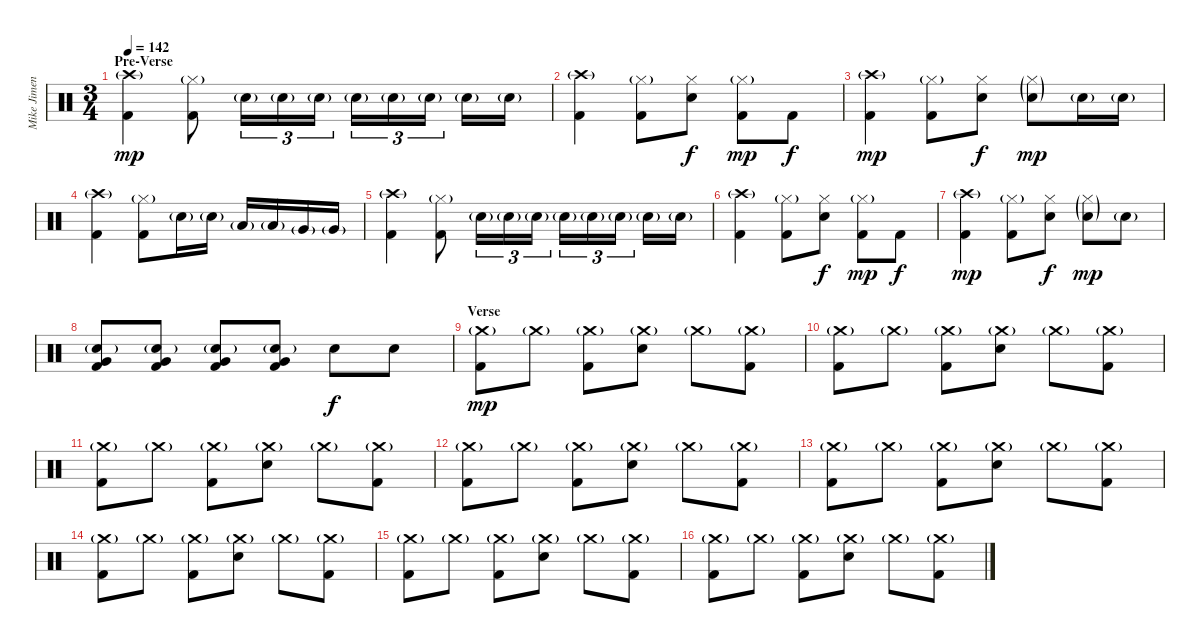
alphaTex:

\track ("Mike Jimenez" "Mike Jimen") {instrument percussion}
\staff {score}
\articulation defaults
\ts (3 4)
\section ("" "Pre-Verse")
\tempo 142
\clef neutral
\ks c
("Crash high (hit)"{g} "Kick (hit) 2").4{dy mp} ("Hi-Hat (closed)"{g} "Kick (hit) 2").8 "Electric Snare (hit)"{g}.16{tu (3 2)} "Electric Snare (hit)"{g}.16{tu (3 2)} "Electric Snare (hit)"{g}.16{tu (3 2)} "Electric Snare (hit)"{g}.16{tu (3 2)} "Electric Snare (hit)"{g}.16{tu (3 2)} "Electric Snare (hit)"{g}.16{tu (3 2)} "Electric Snare (hit)"{g}.16 "Electric Snare (hit)"{g}.16 |
("Crash high (hit)"{g} "Kick (hit) 2").4 ("Hi-Hat (closed)"{g} "Kick (hit) 2").8 ("Hi-Hat (closed)" "Electric Snare (hit)").8{dy f} ("Hi-Hat (closed)"{g} "Kick (hit) 2").8{dy mp} "Kick (hit) 2".8{dy f} |
("Crash high (hit)"{g} "Kick (hit) 2").4{dy mp} ("Hi-Hat (closed)"{g} "Kick (hit) 2").8 ("Hi-Hat (closed)" "Electric Snare (hit)").8{dy f} ("Hi-Hat (closed)"{g} "Electric Snare (hit)"{g}).8{dy mp} "Electric Snare (hit)"{g}.16 "Electric Snare (hit)"{g}.16 |
("Crash high (hit)"{g} "Kick (hit) 2").4 ("Hi-Hat (closed)"{g} "Kick (hit) 2").8 "Electric Snare (hit)"{g}.16 "Electric Snare (hit)"{g}.16 "Low Tom (hit)"{g}.16 "Low Tom (hit)"{g}.16 "Very Low Tom (hit)"{g}.16 "Very Low Tom (hit)"{g}.16 |
("Crash high (hit)"{g} "Kick (hit) 2").4 ("Hi-Hat (closed)"{g} "Kick (hit) 2").8 "Electric Snare (hit)"{g}.16{tu (3 2)} "Electric Snare (hit)"{g}.16{tu (3 2)} "Electric Snare (hit)"{g}.16{tu (3 2)} "Electric Snare (hit)"{g}.16{tu (3 2)} "Electric Snare (hit)"{g}.16{tu (3 2)} "Electric Snare (hit)"{g}.16{tu (3 2)} "Electric Snare (hit)"{g}.16 "Electric Snare (hit)"{g}.16 |
("Crash high (hit)"{g} "Kick (hit) 2").4 ("Hi-Hat (closed)"{g} "Kick (hit) 2").8 ("Hi-Hat (closed)" "Electric Snare (hit)").8{dy f} ("Hi-Hat (closed)"{g} "Kick (hit) 2").8{dy mp} "Kick (hit) 2".8{dy f} |
("Crash high (hit)"{g} "Kick (hit) 2").4{dy mp} ("Hi-Hat (closed)"{g} "Kick (hit) 2").8 ("Hi-Hat (closed)" "Electric Snare (hit)").8{dy f} ("Hi-Hat (closed)"{g} "Electric Snare (hit)"{g}).8{dy mp} "Electric Snare (hit)"{g}.8 |
("Electric Snare (hit)"{g} "Very Low Tom (hit)" "Kick (hit) 2").8 ("Electric Snare (hit)"{g} "Very Low Tom (hit)" "Kick (hit) 2").8 ("Electric Snare (hit)"{g} "Very Low Tom (hit)" "Kick (hit) 2").8 ("Electric Snare (hit)"{g} "Very Low Tom (hit)" "Kick (hit) 2").8 "Electric Snare (hit)".8{dy f} "Electric Snare (hit)".8 |
\section ("" "Verse")
("Crash medium (hit)"{g} "Kick (hit) 2").8{dy mp} "Crash medium (hit)"{g}.8 ("Crash medium (hit)"{g} "Kick (hit) 2").8 ("Crash medium (hit)"{g} "Electric Snare (hit)").8 "Crash medium (hit)"{g}.8 ("Crash medium (hit)"{g} "Kick (hit) 2").8 |
("Crash medium (hit)"{g} "Kick (hit) 2").8 "Crash medium (hit)"{g}.8 ("Crash medium (hit)"{g} "Kick (hit) 2").8 ("Crash medium (hit)"{g} "Electric Snare (hit)").8 "Crash medium (hit)"{g}.8 ("Crash medium (hit)"{g} "Kick (hit) 2").8 |
("Crash medium (hit)"{g} "Kick (hit) 2").8 "Crash medium (hit)"{g}.8 ("Crash medium (hit)"{g} "Kick (hit) 2").8 ("Crash medium (hit)"{g} "Electric Snare (hit)").8 "Crash medium (hit)"{g}.8 ("Crash medium (hit)"{g} "Kick (hit) 2").8 |
("Crash medium (hit)"{g} "Kick (hit) 2").8 "Crash medium (hit)"{g}.8 ("Crash medium (hit)"{g} "Kick (hit) 2").8 ("Crash medium (hit)"{g} "Electric Snare (hit)").8 "Crash medium (hit)"{g}.8 ("Crash medium (hit)"{g} "Kick (hit) 2").8 |
("Crash medium (hit)"{g} "Kick (hit) 2").8 "Crash medium (hit)"{g}.8 ("Crash medium (hit)"{g} "Kick (hit) 2").8 ("Crash medium (hit)"{g} "Electric Snare (hit)").8 "Crash medium (hit)"{g}.8 ("Crash medium (hit)"{g} "Kick (hit) 2").8 |
("Crash medium (hit)"{g} "Kick (hit) 2").8 "Crash medium (hit)"{g}.8 ("Crash medium (hit)"{g} "Kick (hit) 2").8 ("Crash medium (hit)"{g} "Electric Snare (hit)").8 "Crash medium (hit)"{g}.8 ("Crash medium (hit)"{g} "Kick (hit) 2").8 |
("Crash medium (hit)"{g} "Kick (hit) 2").8 "Crash medium (hit)"{g}.8 ("Crash medium (hit)"{g} "Kick (hit) 2").8 ("Crash medium (hit)"{g} "Electric Snare (hit)").8 "Crash medium (hit)"{g}.8 ("Crash medium (hit)"{g} "Kick (hit) 2").8 |
("Crash medium (hit)"{g} "Kick (hit) 2").8 "Crash medium (hit)"{g}.8 ("Crash medium (hit)"{g} "Kick (hit) 2").8 ("Crash medium (hit)"{g} "Electric Snare (hit)").8 "Crash medium (hit)"{g}.8 ("Crash medium (hit)"{g} "Kick (hit) 2").8
